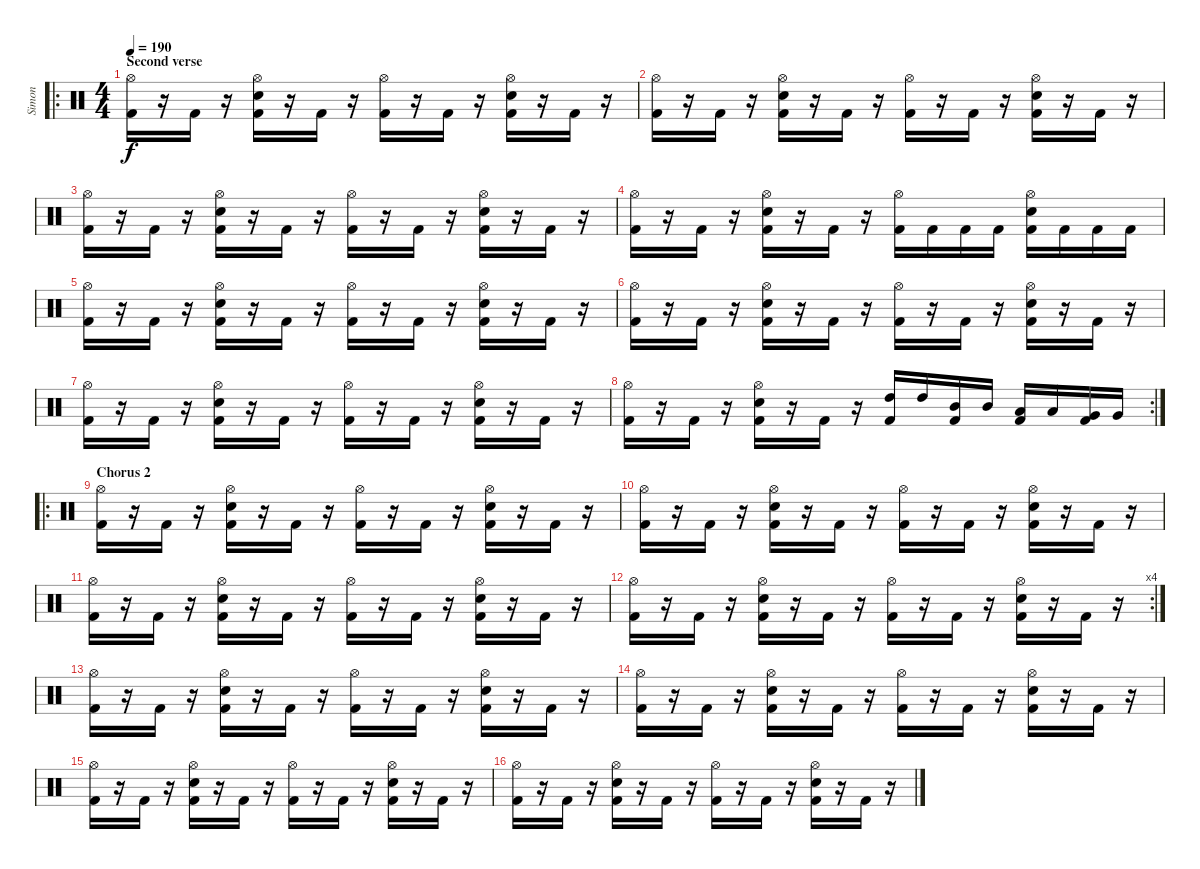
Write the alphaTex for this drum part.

\track ("Simon" "Simon") {instrument percussion}
\staff {score}
\articulation defaults
\ro
\ts (4 4)
\section ("" "Second verse")
\tempo 190
\clef neutral
\ks c
("Hi-Hat (open)" "Kick (hit) 2").16{dy f} r.16 "Kick (hit) 2".16 r.16 ("Hi-Hat (open)" "Snare (hit) 2" "Kick (hit) 2").16 r.16 "Kick (hit) 2".16 r.16 ("Hi-Hat (open)" "Kick (hit) 2").16 r.16 "Kick (hit) 2".16 r.16 ("Hi-Hat (open)" "Snare (hit) 2" "Kick (hit) 2").16 r.16 "Kick (hit) 2".16 r.16 |
("Hi-Hat (open)" "Kick (hit) 2").16 r.16 "Kick (hit) 2".16 r.16 ("Hi-Hat (open)" "Snare (hit) 2" "Kick (hit) 2").16 r.16 "Kick (hit) 2".16 r.16 ("Hi-Hat (open)" "Kick (hit) 2").16 r.16 "Kick (hit) 2".16 r.16 ("Hi-Hat (open)" "Snare (hit) 2" "Kick (hit) 2").16 r.16 "Kick (hit) 2".16 r.16 |
("Hi-Hat (open)" "Kick (hit) 2").16 r.16 "Kick (hit) 2".16 r.16 ("Hi-Hat (open)" "Snare (hit) 2" "Kick (hit) 2").16 r.16 "Kick (hit) 2".16 r.16 ("Hi-Hat (open)" "Kick (hit) 2").16 r.16 "Kick (hit) 2".16 r.16 ("Hi-Hat (open)" "Snare (hit) 2" "Kick (hit) 2").16 r.16 "Kick (hit) 2".16 r.16 |
("Hi-Hat (open)" "Kick (hit) 2").16 r.16 "Kick (hit) 2".16 r.16 ("Hi-Hat (open)" "Snare (hit) 2" "Kick (hit) 2").16 r.16 "Kick (hit) 2".16 r.16 ("Hi-Hat (open)" "Kick (hit) 2").16 "Kick (hit) 2".16 "Kick (hit) 2".16 "Kick (hit) 2".16 ("Hi-Hat (open)" "Snare (hit) 2" "Kick (hit) 2").16 "Kick (hit) 2".16 "Kick (hit) 2".16 "Kick (hit) 2".16 |
("Hi-Hat (open)" "Kick (hit) 2").16 r.16 "Kick (hit) 2".16 r.16 ("Hi-Hat (open)" "Snare (hit) 2" "Kick (hit) 2").16 r.16 "Kick (hit) 2".16 r.16 ("Hi-Hat (open)" "Kick (hit) 2").16 r.16 "Kick (hit) 2".16 r.16 ("Hi-Hat (open)" "Snare (hit) 2" "Kick (hit) 2").16 r.16 "Kick (hit) 2".16 r.16 |
("Hi-Hat (open)" "Kick (hit) 2").16 r.16 "Kick (hit) 2".16 r.16 ("Hi-Hat (open)" "Snare (hit) 2" "Kick (hit) 2").16 r.16 "Kick (hit) 2".16 r.16 ("Hi-Hat (open)" "Kick (hit) 2").16 r.16 "Kick (hit) 2".16 r.16 ("Hi-Hat (open)" "Snare (hit) 2" "Kick (hit) 2").16 r.16 "Kick (hit) 2".16 r.16 |
("Hi-Hat (open)" "Kick (hit) 2").16 r.16 "Kick (hit) 2".16 r.16 ("Hi-Hat (open)" "Snare (hit) 2" "Kick (hit) 2").16 r.16 "Kick (hit) 2".16 r.16 ("Hi-Hat (open)" "Kick (hit) 2").16 r.16 "Kick (hit) 2".16 r.16 ("Hi-Hat (open)" "Snare (hit) 2" "Kick (hit) 2").16 r.16 "Kick (hit) 2".16 r.16 |
\rc 2
("Hi-Hat (open)" "Kick (hit) 2").16 r.16 "Kick (hit) 2".16 r.16 ("Hi-Hat (open)" "Snare (hit) 2" "Kick (hit) 2").16 r.16 "Kick (hit) 2".16 r.16 ("High Tom (hit)" "Kick (hit) 2").16 "High Tom (hit)".16 ("Mid Tom (hit)" "Kick (hit) 2").16 "Mid Tom (hit)".16 ("Low Tom (hit)" "Kick (hit) 2").16 "Low Tom (hit)".16 ("Very Low Tom (hit)" "Kick (hit) 2").16 "Very Low Tom (hit)".16 |
\ro
\section ("" "Chorus 2")
("Hi-Hat (open)" "Kick (hit) 2").16 r.16 "Kick (hit) 2".16 r.16 ("Hi-Hat (open)" "Snare (hit) 2" "Kick (hit) 2").16 r.16 "Kick (hit) 2".16 r.16 ("Hi-Hat (open)" "Kick (hit) 2").16 r.16 "Kick (hit) 2".16 r.16 ("Hi-Hat (open)" "Snare (hit) 2" "Kick (hit) 2").16 r.16 "Kick (hit) 2".16 r.16 |
("Hi-Hat (open)" "Kick (hit) 2").16 r.16 "Kick (hit) 2".16 r.16 ("Hi-Hat (open)" "Snare (hit) 2" "Kick (hit) 2").16 r.16 "Kick (hit) 2".16 r.16 ("Hi-Hat (open)" "Kick (hit) 2").16 r.16 "Kick (hit) 2".16 r.16 ("Hi-Hat (open)" "Snare (hit) 2" "Kick (hit) 2").16 r.16 "Kick (hit) 2".16 r.16 |
("Hi-Hat (open)" "Kick (hit) 2").16 r.16 "Kick (hit) 2".16 r.16 ("Hi-Hat (open)" "Snare (hit) 2" "Kick (hit) 2").16 r.16 "Kick (hit) 2".16 r.16 ("Hi-Hat (open)" "Kick (hit) 2").16 r.16 "Kick (hit) 2".16 r.16 ("Hi-Hat (open)" "Snare (hit) 2" "Kick (hit) 2").16 r.16 "Kick (hit) 2".16 r.16 |
\rc 4
("Hi-Hat (open)" "Kick (hit) 2").16 r.16 "Kick (hit) 2".16 r.16 ("Hi-Hat (open)" "Snare (hit) 2" "Kick (hit) 2").16 r.16 "Kick (hit) 2".16 r.16 ("Hi-Hat (open)" "Kick (hit) 2").16 r.16 "Kick (hit) 2".16 r.16 ("Hi-Hat (open)" "Snare (hit) 2" "Kick (hit) 2").16 r.16 "Kick (hit) 2".16 r.16 |
("Hi-Hat (open)" "Kick (hit) 2").16 r.16 "Kick (hit) 2".16 r.16 ("Hi-Hat (open)" "Snare (hit) 2" "Kick (hit) 2").16 r.16 "Kick (hit) 2".16 r.16 ("Hi-Hat (open)" "Kick (hit) 2").16 r.16 "Kick (hit) 2".16 r.16 ("Hi-Hat (open)" "Snare (hit) 2" "Kick (hit) 2").16 r.16 "Kick (hit) 2".16 r.16 |
("Hi-Hat (open)" "Kick (hit) 2").16 r.16 "Kick (hit) 2".16 r.16 ("Hi-Hat (open)" "Snare (hit) 2" "Kick (hit) 2").16 r.16 "Kick (hit) 2".16 r.16 ("Hi-Hat (open)" "Kick (hit) 2").16 r.16 "Kick (hit) 2".16 r.16 ("Hi-Hat (open)" "Snare (hit) 2" "Kick (hit) 2").16 r.16 "Kick (hit) 2".16 r.16 |
("Hi-Hat (open)" "Kick (hit) 2").16 r.16 "Kick (hit) 2".16 r.16 ("Hi-Hat (open)" "Snare (hit) 2" "Kick (hit) 2").16 r.16 "Kick (hit) 2".16 r.16 ("Hi-Hat (open)" "Kick (hit) 2").16 r.16 "Kick (hit) 2".16 r.16 ("Hi-Hat (open)" "Snare (hit) 2" "Kick (hit) 2").16 r.16 "Kick (hit) 2".16 r.16 |
("Hi-Hat (open)" "Kick (hit) 2").16 r.16 "Kick (hit) 2".16 r.16 ("Hi-Hat (open)" "Snare (hit) 2" "Kick (hit) 2").16 r.16 "Kick (hit) 2".16 r.16 ("Hi-Hat (open)" "Kick (hit) 2").16 r.16 "Kick (hit) 2".16 r.16 ("Hi-Hat (open)" "Snare (hit) 2" "Kick (hit) 2").16 r.16 "Kick (hit) 2".16 r.16
